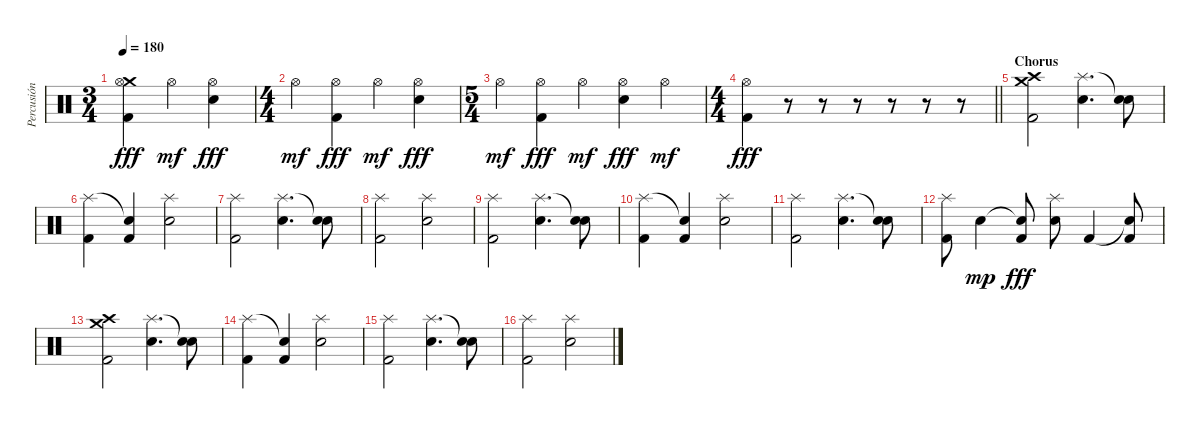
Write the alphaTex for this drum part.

\track ("Percusión" "Percusión") {instrument percussion}
\staff {score}
\articulation defaults
\ts (3 4)
\tempo 180
\clef neutral
\ks c
("Crash medium (hit)" "Hi-Hat (open)" "Kick (hit) 2").4{dy fff} "Hi-Hat (open)".4{dy mf} ("Hi-Hat (open)" "Electric Snare (hit)").4{dy fff} |
\ts (4 4)
"Hi-Hat (open)".4{dy mf} ("Hi-Hat (open)" "Kick (hit) 2").4{dy fff} "Hi-Hat (open)".4{dy mf} ("Hi-Hat (open)" "Electric Snare (hit)").4{dy fff} |
\ts (5 4)
"Hi-Hat (open)".4{dy mf} ("Hi-Hat (open)" "Kick (hit) 2").4{dy fff} "Hi-Hat (open)".4{dy mf} ("Hi-Hat (open)" "Electric Snare (hit)").4{dy fff} "Hi-Hat (open)".4{dy mf} |
\ts (4 4)
\barLineRight lightlight
("Hi-Hat (open)" "Kick (hit) 2").4{dy fff} r.8 r.8 r.8 r.8 r.8 r.8 |
\section ("" "Chorus")
("Crash medium (hit)" "Crash high (hit)" "Kick (hit) 2").2 ("Splash (hit)" "Electric Snare (hit)").4{d} ("Snare (hit)"{t} "Electric Snare (hit)").8 |
("Splash (hit)" "Kick (hit) 2").4 ("Snare (hit)"{t} "Kick (hit) 2").4 ("Splash (hit)" "Electric Snare (hit)").2 |
("Splash (hit)" "Kick (hit) 2").2 ("Splash (hit)" "Electric Snare (hit)").4{d} ("Snare (hit)"{t} "Electric Snare (hit)").8 |
("Splash (hit)" "Kick (hit) 2").2 ("Splash (hit)" "Electric Snare (hit)").2 |
("Splash (hit)" "Kick (hit) 2").2 ("Splash (hit)" "Electric Snare (hit)").4{d} ("Snare (hit)"{t} "Electric Snare (hit)").8 |
("Splash (hit)" "Kick (hit) 2").4 ("Snare (hit)"{t} "Kick (hit) 2").4 ("Splash (hit)" "Electric Snare (hit)").2 |
("Splash (hit)" "Kick (hit) 2").2 ("Splash (hit)" "Electric Snare (hit)").4{d} ("Snare (hit)"{t} "Electric Snare (hit)").8 |
("Splash (hit)" "Kick (hit) 2").8 "Electric Snare (hit)".4{dy mp} ("Snare (hit)"{t} "Kick (hit) 2").8{dy fff} ("Splash (hit)" "Electric Snare (hit)").8 "Kick (hit) 2".4 ("Snare (hit)"{t} "Kick (hit) 2").8 |
("Crash medium (hit)" "Crash high (hit)" "Kick (hit) 2").2 ("Splash (hit)" "Electric Snare (hit)").4{d} ("Snare (hit)"{t} "Electric Snare (hit)").8 |
("Splash (hit)" "Kick (hit) 2").4 ("Snare (hit)"{t} "Kick (hit) 2").4 ("Splash (hit)" "Electric Snare (hit)").2 |
("Splash (hit)" "Kick (hit) 2").2 ("Splash (hit)" "Electric Snare (hit)").4{d} ("Snare (hit)"{t} "Electric Snare (hit)").8 |
("Splash (hit)" "Kick (hit) 2").2 ("Splash (hit)" "Electric Snare (hit)").2
